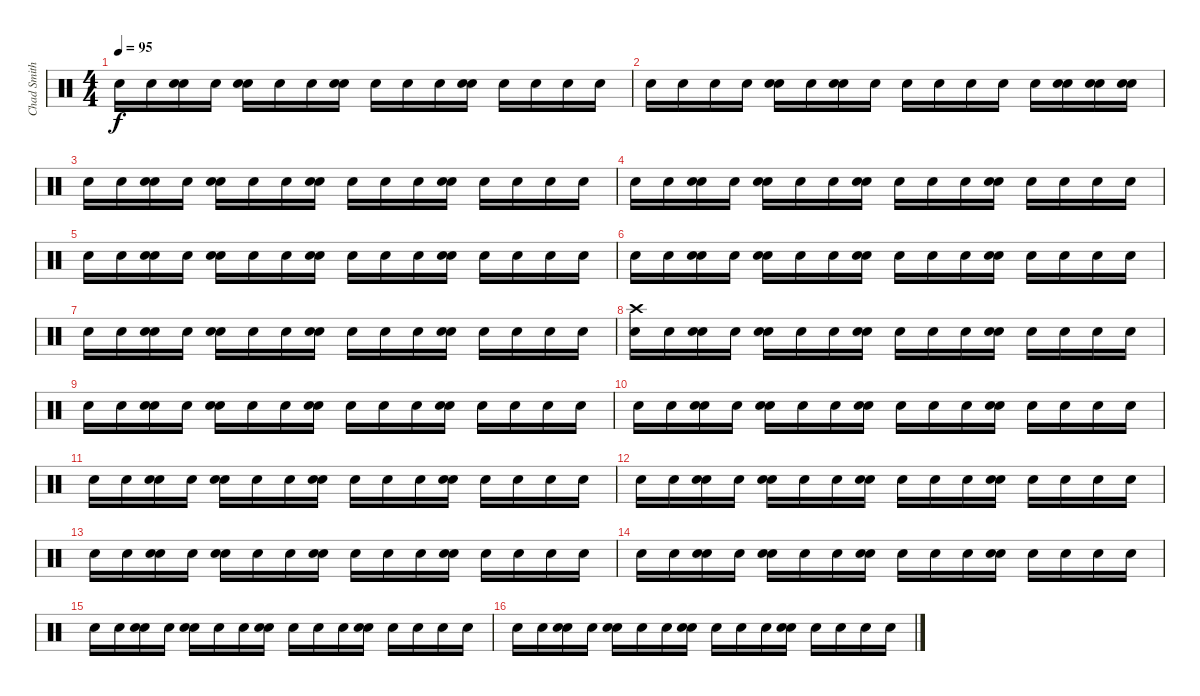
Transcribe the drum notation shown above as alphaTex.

\track ("Chad Smith/Drums" "Chad Smith") {instrument percussion}
\staff {score}
\articulation defaults
\ts (4 4)
\tempo 95
\clef neutral
\ks c "Electric Snare (hit)".16{dy f} "Electric Snare (hit)".16
("Snare (hit) 2" "Electric Snare (hit)").16 "Electric Snare (hit)".16 ("Snare (hit) 2" "Electric Snare (hit)").16 "Electric Snare (hit)".16 "Electric Snare (hit)".16 ("Snare (hit) 2" "Electric Snare (hit)").16 "Electric Snare (hit)".16 "Electric Snare (hit)".16 "Electric Snare (hit)".16 ("Snare (hit) 2" "Electric Snare (hit)").16 "Electric Snare (hit)".16 "Electric Snare (hit)".16 "Electric Snare (hit)".16 "Electric Snare (hit)".16 |
"Electric Snare (hit)".16 "Electric Snare (hit)".16 "Electric Snare (hit)".16 "Electric Snare (hit)".16 ("Snare (hit) 2" "Electric Snare (hit)").16 "Electric Snare (hit)".16 ("Snare (hit) 2" "Electric Snare (hit)").16 "Electric Snare (hit)".16 "Electric Snare (hit)".16 "Electric Snare (hit)".16 "Electric Snare (hit)".16 "Electric Snare (hit)".16 "Electric Snare (hit)".16 ("Snare (hit) 2" "Electric Snare (hit)").16 ("Snare (hit) 2" "Electric Snare (hit)").16 ("Snare (hit) 2" "Electric Snare (hit)").16 |
"Electric Snare (hit)".16 "Electric Snare (hit)".16 ("Snare (hit) 2" "Electric Snare (hit)").16 "Electric Snare (hit)".16 ("Snare (hit) 2" "Electric Snare (hit)").16 "Electric Snare (hit)".16 "Electric Snare (hit)".16 ("Snare (hit) 2" "Electric Snare (hit)").16 "Electric Snare (hit)".16 "Electric Snare (hit)".16 "Electric Snare (hit)".16 ("Snare (hit) 2" "Electric Snare (hit)").16 "Electric Snare (hit)".16 "Electric Snare (hit)".16 "Electric Snare (hit)".16 "Electric Snare (hit)".16 |
"Electric Snare (hit)".16 "Electric Snare (hit)".16 ("Snare (hit) 2" "Electric Snare (hit)").16 "Electric Snare (hit)".16 ("Snare (hit) 2" "Electric Snare (hit)").16 "Electric Snare (hit)".16 "Electric Snare (hit)".16 ("Snare (hit) 2" "Electric Snare (hit)").16 "Electric Snare (hit)".16 "Electric Snare (hit)".16 "Electric Snare (hit)".16 ("Snare (hit) 2" "Electric Snare (hit)").16 "Electric Snare (hit)".16 "Electric Snare (hit)".16 "Electric Snare (hit)".16 "Electric Snare (hit)".16 |
"Electric Snare (hit)".16 "Electric Snare (hit)".16 ("Snare (hit) 2" "Electric Snare (hit)").16 "Electric Snare (hit)".16 ("Snare (hit) 2" "Electric Snare (hit)").16 "Electric Snare (hit)".16 "Electric Snare (hit)".16 ("Snare (hit) 2" "Electric Snare (hit)").16 "Electric Snare (hit)".16 "Electric Snare (hit)".16 "Electric Snare (hit)".16 ("Snare (hit) 2" "Electric Snare (hit)").16 "Electric Snare (hit)".16 "Electric Snare (hit)".16 "Electric Snare (hit)".16 "Electric Snare (hit)".16 |
"Electric Snare (hit)".16 "Electric Snare (hit)".16 ("Snare (hit) 2" "Electric Snare (hit)").16 "Electric Snare (hit)".16 ("Snare (hit) 2" "Electric Snare (hit)").16 "Electric Snare (hit)".16 "Electric Snare (hit)".16 ("Snare (hit) 2" "Electric Snare (hit)").16 "Electric Snare (hit)".16 "Electric Snare (hit)".16 "Electric Snare (hit)".16 ("Snare (hit) 2" "Electric Snare (hit)").16 "Electric Snare (hit)".16 "Electric Snare (hit)".16 "Electric Snare (hit)".16 "Electric Snare (hit)".16 |
"Electric Snare (hit)".16 "Electric Snare (hit)".16 ("Snare (hit) 2" "Electric Snare (hit)").16 "Electric Snare (hit)".16 ("Snare (hit) 2" "Electric Snare (hit)").16 "Electric Snare (hit)".16 "Electric Snare (hit)".16 ("Snare (hit) 2" "Electric Snare (hit)").16 "Electric Snare (hit)".16 "Electric Snare (hit)".16 "Electric Snare (hit)".16 ("Snare (hit) 2" "Electric Snare (hit)").16 "Electric Snare (hit)".16 "Electric Snare (hit)".16 "Electric Snare (hit)".16 "Electric Snare (hit)".16 |
("Electric Snare (hit)" "Crash high (hit)").16 "Electric Snare (hit)".16 ("Snare (hit) 2" "Electric Snare (hit)").16 "Electric Snare (hit)".16 ("Snare (hit) 2" "Electric Snare (hit)").16 "Electric Snare (hit)".16 "Electric Snare (hit)".16 ("Snare (hit) 2" "Electric Snare (hit)").16 "Electric Snare (hit)".16 "Electric Snare (hit)".16 "Electric Snare (hit)".16 ("Snare (hit) 2" "Electric Snare (hit)").16 "Electric Snare (hit)".16 "Electric Snare (hit)".16 "Electric Snare (hit)".16 "Electric Snare (hit)".16 |
"Electric Snare (hit)".16 "Electric Snare (hit)".16 ("Snare (hit) 2" "Electric Snare (hit)").16 "Electric Snare (hit)".16 ("Snare (hit) 2" "Electric Snare (hit)").16 "Electric Snare (hit)".16 "Electric Snare (hit)".16 ("Snare (hit) 2" "Electric Snare (hit)").16 "Electric Snare (hit)".16 "Electric Snare (hit)".16 "Electric Snare (hit)".16 ("Snare (hit) 2" "Electric Snare (hit)").16 "Electric Snare (hit)".16 "Electric Snare (hit)".16 "Electric Snare (hit)".16 "Electric Snare (hit)".16 |
"Electric Snare (hit)".16 "Electric Snare (hit)".16 ("Snare (hit) 2" "Electric Snare (hit)").16 "Electric Snare (hit)".16 ("Snare (hit) 2" "Electric Snare (hit)").16 "Electric Snare (hit)".16 "Electric Snare (hit)".16 ("Snare (hit) 2" "Electric Snare (hit)").16 "Electric Snare (hit)".16 "Electric Snare (hit)".16 "Electric Snare (hit)".16 ("Snare (hit) 2" "Electric Snare (hit)").16 "Electric Snare (hit)".16 "Electric Snare (hit)".16 "Electric Snare (hit)".16 "Electric Snare (hit)".16 |
"Electric Snare (hit)".16 "Electric Snare (hit)".16 ("Snare (hit) 2" "Electric Snare (hit)").16 "Electric Snare (hit)".16 ("Snare (hit) 2" "Electric Snare (hit)").16 "Electric Snare (hit)".16 "Electric Snare (hit)".16 ("Snare (hit) 2" "Electric Snare (hit)").16 "Electric Snare (hit)".16 "Electric Snare (hit)".16 "Electric Snare (hit)".16 ("Snare (hit) 2" "Electric Snare (hit)").16 "Electric Snare (hit)".16 "Electric Snare (hit)".16 "Electric Snare (hit)".16 "Electric Snare (hit)".16 |
"Electric Snare (hit)".16 "Electric Snare (hit)".16 ("Snare (hit) 2" "Electric Snare (hit)").16 "Electric Snare (hit)".16 ("Snare (hit) 2" "Electric Snare (hit)").16 "Electric Snare (hit)".16 "Electric Snare (hit)".16 ("Snare (hit) 2" "Electric Snare (hit)").16 "Electric Snare (hit)".16 "Electric Snare (hit)".16 "Electric Snare (hit)".16 ("Snare (hit) 2" "Electric Snare (hit)").16 "Electric Snare (hit)".16 "Electric Snare (hit)".16 "Electric Snare (hit)".16 "Electric Snare (hit)".16 |
"Electric Snare (hit)".16 "Electric Snare (hit)".16 ("Snare (hit) 2" "Electric Snare (hit)").16 "Electric Snare (hit)".16 ("Snare (hit) 2" "Electric Snare (hit)").16 "Electric Snare (hit)".16 "Electric Snare (hit)".16 ("Snare (hit) 2" "Electric Snare (hit)").16 "Electric Snare (hit)".16 "Electric Snare (hit)".16 "Electric Snare (hit)".16 ("Snare (hit) 2" "Electric Snare (hit)").16 "Electric Snare (hit)".16 "Electric Snare (hit)".16 "Electric Snare (hit)".16 "Electric Snare (hit)".16 |
"Electric Snare (hit)".16 "Electric Snare (hit)".16 ("Snare (hit) 2" "Electric Snare (hit)").16 "Electric Snare (hit)".16 ("Snare (hit) 2" "Electric Snare (hit)").16 "Electric Snare (hit)".16 "Electric Snare (hit)".16 ("Snare (hit) 2" "Electric Snare (hit)").16 "Electric Snare (hit)".16 "Electric Snare (hit)".16 "Electric Snare (hit)".16 ("Snare (hit) 2" "Electric Snare (hit)").16 "Electric Snare (hit)".16 "Electric Snare (hit)".16 "Electric Snare (hit)".16 "Electric Snare (hit)".16 |
"Electric Snare (hit)".16 "Electric Snare (hit)".16 ("Snare (hit) 2" "Electric Snare (hit)").16 "Electric Snare (hit)".16 ("Snare (hit) 2" "Electric Snare (hit)").16 "Electric Snare (hit)".16 "Electric Snare (hit)".16 ("Snare (hit) 2" "Electric Snare (hit)").16 "Electric Snare (hit)".16 "Electric Snare (hit)".16 "Electric Snare (hit)".16 ("Snare (hit) 2" "Electric Snare (hit)").16 "Electric Snare (hit)".16 "Electric Snare (hit)".16 "Electric Snare (hit)".16 "Electric Snare (hit)".16 |
"Electric Snare (hit)".16 "Electric Snare (hit)".16 ("Snare (hit) 2" "Electric Snare (hit)").16 "Electric Snare (hit)".16 ("Snare (hit) 2" "Electric Snare (hit)").16 "Electric Snare (hit)".16 "Electric Snare (hit)".16 ("Snare (hit) 2" "Electric Snare (hit)").16 "Electric Snare (hit)".16 "Electric Snare (hit)".16 "Electric Snare (hit)".16 ("Snare (hit) 2" "Electric Snare (hit)").16 "Electric Snare (hit)".16 "Electric Snare (hit)".16 "Electric Snare (hit)".16 "Electric Snare (hit)".16
